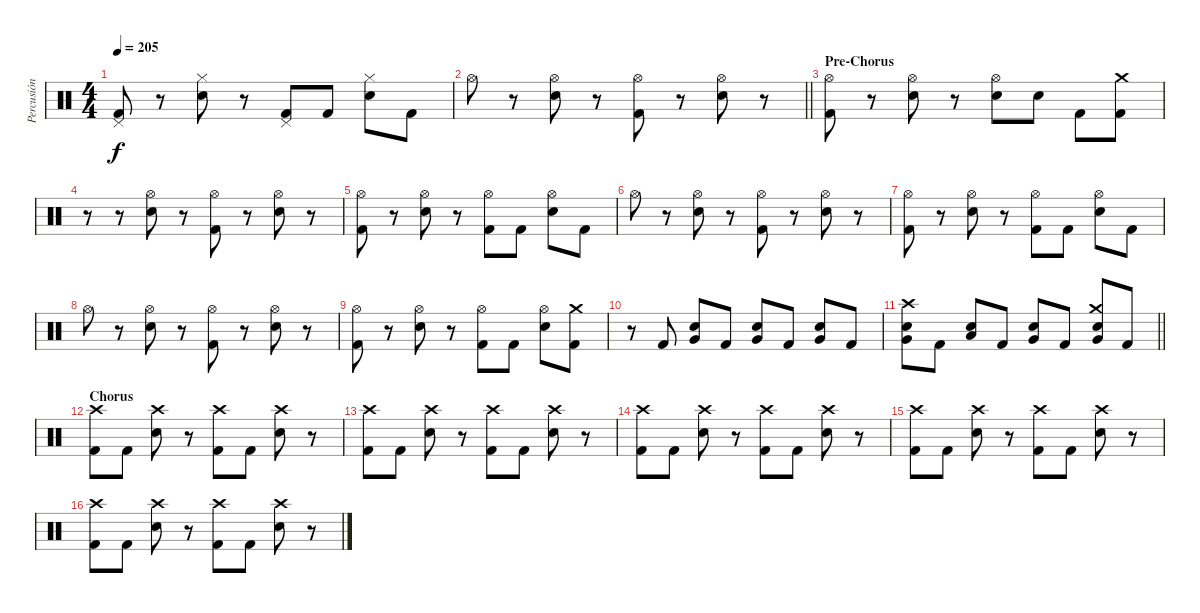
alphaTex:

\track ("Percusión" "Percusión") {instrument percussion}
\staff {score}
\articulation defaults
\ts (4 4)
\tempo 205
\clef neutral
\ks c
("Pedal Hi-Hat (hit)" "Kick (hit) 2").8{dy f} r.8 ("Hi-Hat (closed)" "Electric Snare (hit)").8 r.8 ("Pedal Hi-Hat (hit)" "Kick (hit) 2").8 "Kick (hit) 2".8 ("Hi-Hat (closed)" "Electric Snare (hit)").8 "Kick (hit) 2".8 |
\barLineRight lightlight "Hi-Hat (open)".8
r.8 ("Hi-Hat (open)" "Electric Snare (hit)").8 r.8 ("Hi-Hat (open)" "Kick (hit) 2").8 r.8 ("Hi-Hat (open)" "Electric Snare (hit)").8 r.8 |
\section ("" "Pre-Chorus")
("Hi-Hat (open)" "Kick (hit) 2").8 r.8 ("Hi-Hat (open)" "Electric Snare (hit)").8 r.8 ("Hi-Hat (open)" "Electric Snare (hit)").8 "Electric Snare (hit)".8 "Kick (hit) 2".8 ("Crash medium (hit)" "Kick (hit) 2").8 |
r.8 r.8 ("Hi-Hat (open)" "Electric Snare (hit)").8 r.8 ("Hi-Hat (open)" "Kick (hit) 2").8 r.8 ("Hi-Hat (open)" "Electric Snare (hit)").8 r.8 |
("Hi-Hat (open)" "Kick (hit) 2").8 r.8 ("Hi-Hat (open)" "Electric Snare (hit)").8 r.8 ("Hi-Hat (open)" "Kick (hit) 2").8 "Kick (hit) 2".8 ("Hi-Hat (open)" "Electric Snare (hit)").8 "Kick (hit) 2".8 |
"Hi-Hat (open)".8 r.8 ("Hi-Hat (open)" "Electric Snare (hit)").8 r.8 ("Hi-Hat (open)" "Kick (hit) 2").8 r.8 ("Hi-Hat (open)" "Electric Snare (hit)").8 r.8 |
("Hi-Hat (open)" "Kick (hit) 2").8 r.8 ("Hi-Hat (open)" "Electric Snare (hit)").8 r.8 ("Hi-Hat (open)" "Kick (hit) 2").8 "Kick (hit) 2".8 ("Hi-Hat (open)" "Electric Snare (hit)").8 "Kick (hit) 2".8 |
"Hi-Hat (open)".8 r.8 ("Hi-Hat (open)" "Electric Snare (hit)").8 r.8 ("Hi-Hat (open)" "Kick (hit) 2").8 r.8 ("Hi-Hat (open)" "Electric Snare (hit)").8 r.8 |
("Hi-Hat (open)" "Kick (hit) 2").8 r.8 ("Hi-Hat (open)" "Electric Snare (hit)").8 r.8 ("Hi-Hat (open)" "Kick (hit) 2").8 "Kick (hit) 2".8 ("Hi-Hat (open)" "Electric Snare (hit)").8 ("Crash medium (hit)" "Kick (hit) 2").8 |
r.8 "Kick (hit) 2".8 ("Very Low Tom (hit)" "Electric Snare (hit)").8 "Kick (hit) 2".8 ("Very Low Tom (hit)" "Electric Snare (hit)").8 "Kick (hit) 2".8 ("Very Low Tom (hit)" "Electric Snare (hit)").8 "Kick (hit) 2".8 |
\barLineRight lightlight
("Crash high (hit)" "Very Low Tom (hit)" "Electric Snare (hit)").8 "Kick (hit) 2".8 ("Low Tom (hit)" "Electric Snare (hit)").8 "Kick (hit) 2".8 ("Very Low Tom (hit)" "Electric Snare (hit)").8 "Kick (hit) 2".8 ("Crash medium (hit)" "Very Low Tom (hit)" "Electric Snare (hit)").8 "Kick (hit) 2".8 |
\section ("" "Chorus")
("Crash high (hit)" "Kick (hit) 2").8 "Kick (hit) 2".8 ("Crash high (hit)" "Electric Snare (hit)").8 r.8 ("Crash high (hit)" "Kick (hit) 2").8 "Kick (hit) 2".8 ("Crash high (hit)" "Electric Snare (hit)").8 r.8 |
("Crash high (hit)" "Kick (hit) 2").8 "Kick (hit) 2".8 ("Crash high (hit)" "Electric Snare (hit)").8 r.8 ("Crash high (hit)" "Kick (hit) 2").8 "Kick (hit) 2".8 ("Crash high (hit)" "Electric Snare (hit)").8 r.8 |
("Crash high (hit)" "Kick (hit) 2").8 "Kick (hit) 2".8 ("Crash high (hit)" "Electric Snare (hit)").8 r.8 ("Crash high (hit)" "Kick (hit) 2").8 "Kick (hit) 2".8 ("Crash high (hit)" "Electric Snare (hit)").8 r.8 |
("Crash high (hit)" "Kick (hit) 2").8 "Kick (hit) 2".8 ("Crash high (hit)" "Electric Snare (hit)").8 r.8 ("Crash high (hit)" "Kick (hit) 2").8 "Kick (hit) 2".8 ("Crash high (hit)" "Electric Snare (hit)").8 r.8 |
("Crash high (hit)" "Kick (hit) 2").8 "Kick (hit) 2".8 ("Crash high (hit)" "Electric Snare (hit)").8 r.8 ("Crash high (hit)" "Kick (hit) 2").8 "Kick (hit) 2".8 ("Crash high (hit)" "Electric Snare (hit)").8 r.8
